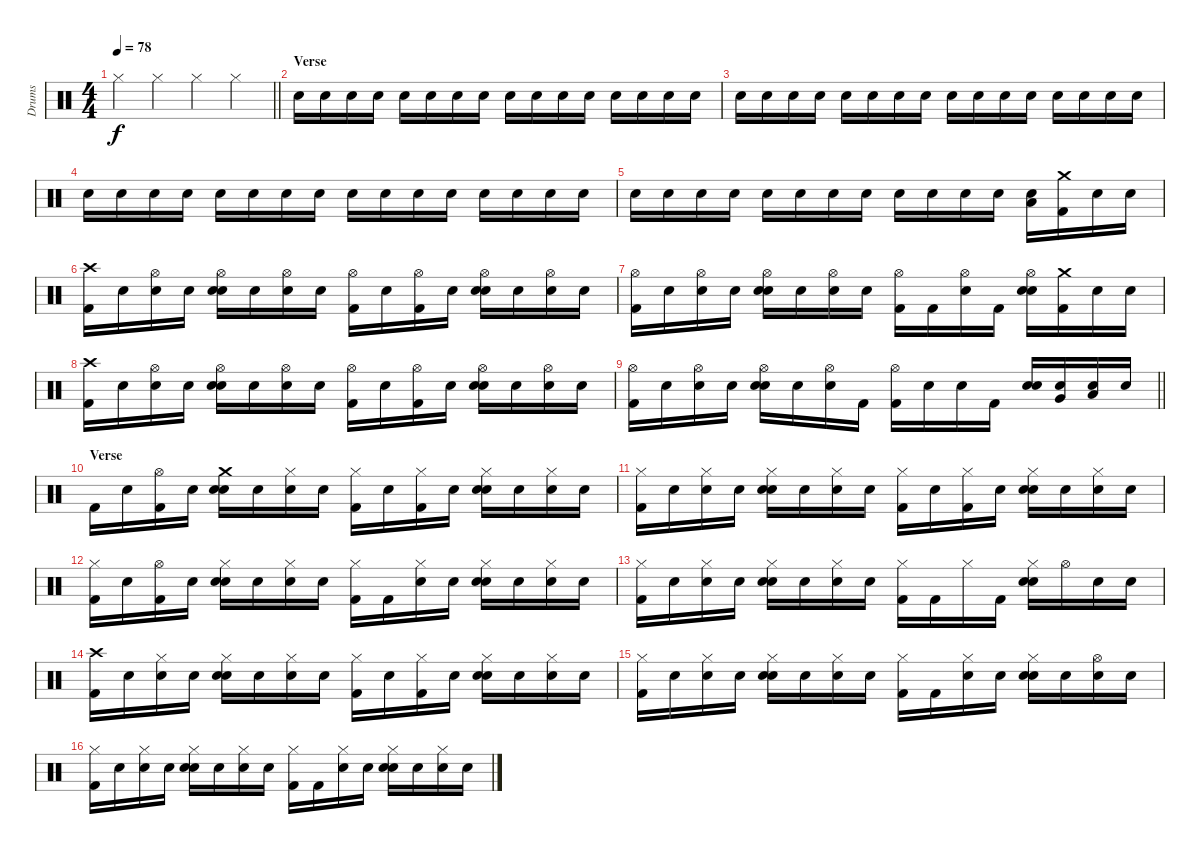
\track ("Drums" "Drums") {instrument percussion}
\staff {score}
\articulation defaults
\ts (4 4)
\tempo 78
\clef neutral
\barLineRight lightlight
\ks c "Hi-Hat (closed)".4{dy f} "Hi-Hat (closed)".4 "Hi-Hat (closed)".4 "Hi-Hat (closed)".4
|
\section ("" "Verse")
"Snare (hit)".16 "Snare (hit)".16 "Snare (hit)".16 "Snare (hit)".16 "Snare (hit)".16 "Snare (hit)".16 "Snare (hit)".16 "Snare (hit)".16 "Snare (hit)".16 "Snare (hit)".16 "Snare (hit)".16 "Snare (hit)".16 "Snare (hit)".16 "Snare (hit)".16 "Snare (hit)".16 "Snare (hit)".16 |
"Snare (hit)".16 "Snare (hit)".16 "Snare (hit)".16 "Snare (hit)".16 "Snare (hit)".16 "Snare (hit)".16 "Snare (hit)".16 "Snare (hit)".16 "Snare (hit)".16 "Snare (hit)".16 "Snare (hit)".16 "Snare (hit)".16 "Snare (hit)".16 "Snare (hit)".16 "Snare (hit)".16 "Snare (hit)".16 |
"Snare (hit)".16 "Snare (hit)".16 "Snare (hit)".16 "Snare (hit)".16 "Snare (hit)".16 "Snare (hit)".16 "Snare (hit)".16 "Snare (hit)".16 "Snare (hit)".16 "Snare (hit)".16 "Snare (hit)".16 "Snare (hit)".16 "Snare (hit)".16 "Snare (hit)".16 "Snare (hit)".16 "Snare (hit)".16 |
"Snare (hit)".16 "Snare (hit)".16 "Snare (hit)".16 "Snare (hit)".16 "Snare (hit)".16 "Snare (hit)".16 "Snare (hit)".16 "Snare (hit)".16 "Snare (hit)".16 "Snare (hit)".16 "Snare (hit)".16 "Snare (hit)".16 ("Low Floor Tom (hit)" "Snare (hit) 2").16 ("Crash medium (hit)" "Kick (hit) 2").16 "Snare (hit)".16 "Snare (hit)".16 |
("Crash high (hit)" "Kick (hit) 2").16 "Snare (hit)".16 ("Hi-Hat (open)" "Snare (hit)").16 "Snare (hit)".16 ("Hi-Hat (open)" "Snare (hit) 2" "Snare (hit)").16 "Snare (hit)".16 ("Hi-Hat (open)" "Snare (hit)").16 "Snare (hit)".16 ("Hi-Hat (open)" "Kick (hit) 2").16 "Snare (hit)".16 ("Hi-Hat (open)" "Kick (hit) 2").16 "Snare (hit)".16 ("Hi-Hat (open)" "Snare (hit) 2" "Snare (hit)").16 "Snare (hit)".16 ("Hi-Hat (open)" "Snare (hit)").16 "Snare (hit)".16 |
("Hi-Hat (open)" "Kick (hit) 2").16 "Snare (hit)".16 ("Hi-Hat (open)" "Snare (hit)").16 "Snare (hit)".16 ("Hi-Hat (open)" "Snare (hit) 2" "Snare (hit)").16 "Snare (hit)".16 ("Hi-Hat (open)" "Snare (hit)").16 "Snare (hit)".16 ("Hi-Hat (open)" "Kick (hit) 2").16 "Kick (hit) 2".16 ("Hi-Hat (open)" "Snare (hit)").16 "Kick (hit) 2".16 ("Hi-Hat (open)" "Snare (hit) 2" "Snare (hit)").16 ("Crash medium (hit)" "Kick (hit) 2").16 "Snare (hit)".16 "Snare (hit)".16 |
("Crash high (hit)" "Kick (hit) 2").16 "Snare (hit)".16 ("Hi-Hat (open)" "Snare (hit)").16 "Snare (hit)".16 ("Hi-Hat (open)" "Snare (hit) 2" "Snare (hit)").16 "Snare (hit)".16 ("Hi-Hat (open)" "Snare (hit)").16 "Snare (hit)".16 ("Hi-Hat (open)" "Kick (hit) 2").16 "Snare (hit)".16 ("Hi-Hat (open)" "Kick (hit) 2").16 "Snare (hit)".16 ("Hi-Hat (open)" "Snare (hit) 2" "Snare (hit)").16 "Snare (hit)".16 ("Hi-Hat (open)" "Snare (hit)").16 "Snare (hit)".16 |
\barLineRight lightlight
("Hi-Hat (open)" "Kick (hit) 2").16 "Snare (hit)".16 ("Hi-Hat (open)" "Snare (hit)").16 "Snare (hit)".16 ("Hi-Hat (open)" "Snare (hit) 2" "Snare (hit)").16 "Snare (hit)".16 ("Hi-Hat (open)" "Snare (hit)").16 "Kick (hit) 2".16 ("Hi-Hat (open)" "Kick (hit) 2").16 "Snare (hit) 2".16 "Snare (hit) 2".16 "Kick (hit) 2".16 ("Snare (hit) 2" "Snare (hit)").16 ("Very Low Tom (hit)" "Snare (hit)").16 ("Low Floor Tom (hit)" "Snare (hit)").16 "Snare (hit)".16 |
\section ("" "Verse")
"Kick (hit) 2".16 "Snare (hit)".16 ("Hi-Hat (open)" "Kick (hit) 2").16 "Snare (hit)".16 ("Crash medium (hit)" "Snare (hit) 2" "Snare (hit)").16 "Snare (hit)".16 ("Hi-Hat (closed)" "Snare (hit)").16 "Snare (hit)".16 ("Hi-Hat (closed)" "Kick (hit) 2").16 "Snare (hit)".16 ("Hi-Hat (closed)" "Kick (hit) 2").16 "Snare (hit)".16 ("Hi-Hat (closed)" "Snare (hit) 2" "Snare (hit)").16 "Snare (hit)".16 ("Hi-Hat (closed)" "Snare (hit)").16 "Snare (hit)".16 |
("Hi-Hat (closed)" "Kick (hit) 2").16 "Snare (hit)".16 ("Hi-Hat (closed)" "Snare (hit)").16 "Snare (hit)".16 ("Hi-Hat (closed)" "Snare (hit) 2" "Snare (hit)").16 "Snare (hit)".16 ("Hi-Hat (closed)" "Snare (hit)").16 "Snare (hit)".16 ("Hi-Hat (closed)" "Kick (hit) 2").16 "Snare (hit)".16 ("Hi-Hat (closed)" "Kick (hit) 2").16 "Snare (hit)".16 ("Hi-Hat (closed)" "Snare (hit) 2" "Snare (hit)").16 "Snare (hit)".16 ("Hi-Hat (closed)" "Snare (hit)").16 "Snare (hit)".16 |
("Hi-Hat (closed)" "Kick (hit) 2").16 "Snare (hit)".16 ("Hi-Hat (open)" "Kick (hit) 2").16 "Snare (hit)".16 ("Hi-Hat (closed)" "Snare (hit) 2" "Snare (hit)").16 "Snare (hit)".16 ("Hi-Hat (closed)" "Snare (hit)").16 "Snare (hit)".16 ("Hi-Hat (closed)" "Kick (hit) 2").16 "Kick (hit) 2".16 ("Hi-Hat (closed)" "Snare (hit)").16 "Snare (hit)".16 ("Hi-Hat (closed)" "Snare (hit) 2" "Snare (hit)").16 "Snare (hit)".16 ("Hi-Hat (closed)" "Snare (hit)").16 "Snare (hit)".16 |
("Hi-Hat (closed)" "Kick (hit) 2").16 "Snare (hit)".16 ("Hi-Hat (closed)" "Snare (hit)").16 "Snare (hit)".16 ("Hi-Hat (closed)" "Snare (hit) 2" "Snare (hit)").16 "Snare (hit)".16 ("Hi-Hat (closed)" "Snare (hit)").16 "Snare (hit)".16 ("Hi-Hat (closed)" "Kick (hit) 2").16 "Kick (hit) 2".16 "Hi-Hat (closed)".16 "Kick (hit) 2".16 ("Hi-Hat (closed)" "Snare (hit) 2" "Snare (hit)").16 "Hi-Hat (open)".16 "Snare (hit)".16 "Snare (hit)".16 |
("Crash high (hit)" "Kick (hit) 2").16 "Snare (hit)".16 ("Hi-Hat (closed)" "Snare (hit)").16 "Snare (hit)".16 ("Hi-Hat (closed)" "Snare (hit) 2" "Snare (hit)").16 "Snare (hit)".16 ("Hi-Hat (closed)" "Snare (hit)").16 "Snare (hit)".16 ("Hi-Hat (closed)" "Kick (hit) 2").16 "Snare (hit)".16 ("Hi-Hat (closed)" "Kick (hit) 2").16 "Snare (hit)".16 ("Hi-Hat (closed)" "Snare (hit) 2" "Snare (hit)").16 "Snare (hit)".16 ("Hi-Hat (closed)" "Snare (hit)").16 "Snare (hit)".16 |
("Hi-Hat (closed)" "Kick (hit) 2").16 "Snare (hit)".16 ("Hi-Hat (closed)" "Snare (hit)").16 "Snare (hit)".16 ("Hi-Hat (closed)" "Snare (hit) 2" "Snare (hit)").16 "Snare (hit)".16 ("Hi-Hat (closed)" "Snare (hit)").16 "Snare (hit)".16 ("Hi-Hat (closed)" "Kick (hit) 2").16 "Kick (hit) 2".16 ("Hi-Hat (closed)" "Snare (hit)").16 "Snare (hit)".16 ("Hi-Hat (closed)" "Snare (hit) 2" "Snare (hit)").16 "Snare (hit)".16 ("Hi-Hat (open)" "Snare (hit)").16 "Snare (hit)".16 |
("Hi-Hat (closed)" "Kick (hit) 2").16 "Snare (hit)".16 ("Hi-Hat (closed)" "Snare (hit)").16 "Snare (hit)".16 ("Hi-Hat (closed)" "Snare (hit) 2" "Snare (hit)").16 "Snare (hit)".16 ("Hi-Hat (closed)" "Snare (hit)").16 "Snare (hit)".16 ("Hi-Hat (closed)" "Kick (hit) 2").16 "Kick (hit) 2".16 ("Hi-Hat (closed)" "Snare (hit)").16 "Snare (hit)".16 ("Hi-Hat (closed)" "Snare (hit) 2" "Snare (hit)").16 "Snare (hit)".16 ("Hi-Hat (closed)" "Snare (hit)").16 "Snare (hit)".16
